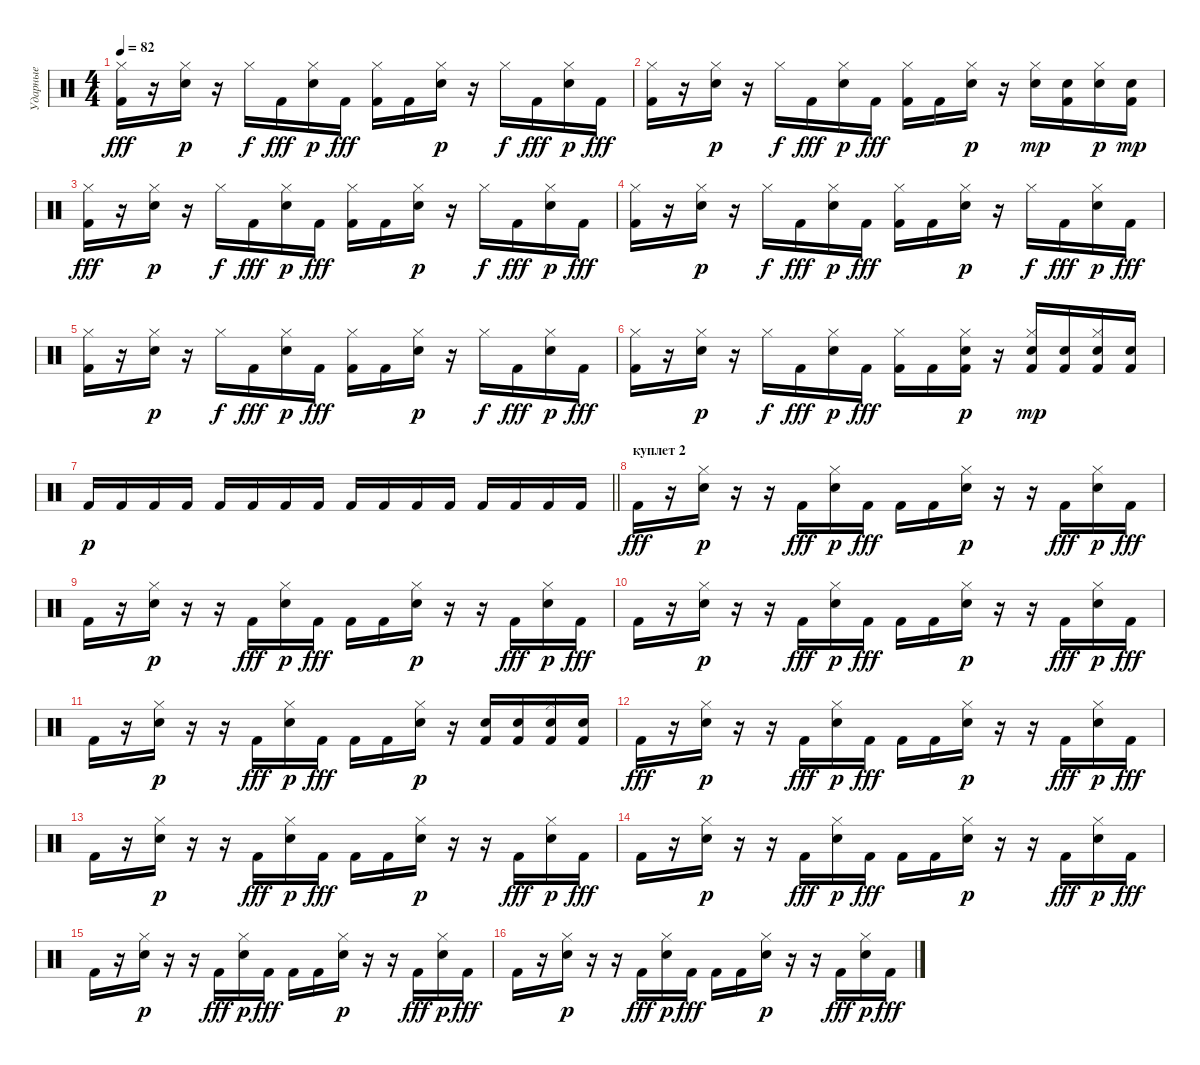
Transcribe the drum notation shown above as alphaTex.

\track ("Ударные" "Ударные") {instrument percussion}
\staff {score}
\articulation defaults
\ts (4 4)
\tempo 82
\clef neutral
\ks c
("Kick (hit) 2" "Hi-Hat (closed)").16{dy fff} r.16 ("Hi-Hat (closed)" "Electric Snare (hit)").16{dy p} r.16 "Hi-Hat (closed)".16{dy f} "Kick (hit) 2".16{dy fff} ("Hi-Hat (closed)" "Electric Snare (hit)").16{dy p} "Kick (hit) 2".16{dy fff} ("Kick (hit) 2" "Hi-Hat (closed)").16 "Kick (hit) 2".16 ("Hi-Hat (closed)" "Electric Snare (hit)").16{dy p} r.16 "Hi-Hat (closed)".16{dy f} "Kick (hit) 2".16{dy fff} ("Hi-Hat (closed)" "Electric Snare (hit)").16{dy p} "Kick (hit) 2".16{dy fff} |
("Kick (hit) 2" "Hi-Hat (closed)").16 r.16 ("Hi-Hat (closed)" "Electric Snare (hit)").16{dy p} r.16 "Hi-Hat (closed)".16{dy f} "Kick (hit) 2".16{dy fff} ("Hi-Hat (closed)" "Electric Snare (hit)").16{dy p} "Kick (hit) 2".16{dy fff} ("Kick (hit) 2" "Hi-Hat (closed)").16 "Kick (hit) 2".16 ("Hi-Hat (closed)" "Electric Snare (hit)").16{dy p} r.16 ("Hi-Hat (closed)" "Electric Snare (hit)").16{dy mp} ("Kick (hit) 2" "Electric Snare (hit)").16 ("Hi-Hat (closed)" "Electric Snare (hit)").16{dy p} ("Kick (hit) 2" "Electric Snare (hit)").16{dy mp} |
("Kick (hit) 2" "Hi-Hat (closed)").16{dy fff} r.16 ("Hi-Hat (closed)" "Electric Snare (hit)").16{dy p} r.16 "Hi-Hat (closed)".16{dy f} "Kick (hit) 2".16{dy fff} ("Hi-Hat (closed)" "Electric Snare (hit)").16{dy p} "Kick (hit) 2".16{dy fff} ("Kick (hit) 2" "Hi-Hat (closed)").16 "Kick (hit) 2".16 ("Hi-Hat (closed)" "Electric Snare (hit)").16{dy p} r.16 "Hi-Hat (closed)".16{dy f} "Kick (hit) 2".16{dy fff} ("Hi-Hat (closed)" "Electric Snare (hit)").16{dy p} "Kick (hit) 2".16{dy fff} |
("Kick (hit) 2" "Hi-Hat (closed)").16 r.16 ("Hi-Hat (closed)" "Electric Snare (hit)").16{dy p} r.16 "Hi-Hat (closed)".16{dy f} "Kick (hit) 2".16{dy fff} ("Hi-Hat (closed)" "Electric Snare (hit)").16{dy p} "Kick (hit) 2".16{dy fff} ("Kick (hit) 2" "Hi-Hat (closed)").16 "Kick (hit) 2".16 ("Hi-Hat (closed)" "Electric Snare (hit)").16{dy p} r.16 "Hi-Hat (closed)".16{dy f} "Kick (hit) 2".16{dy fff} ("Hi-Hat (closed)" "Electric Snare (hit)").16{dy p} "Kick (hit) 2".16{dy fff} |
("Kick (hit) 2" "Hi-Hat (closed)").16 r.16 ("Hi-Hat (closed)" "Electric Snare (hit)").16{dy p} r.16 "Hi-Hat (closed)".16{dy f} "Kick (hit) 2".16{dy fff} ("Hi-Hat (closed)" "Electric Snare (hit)").16{dy p} "Kick (hit) 2".16{dy fff} ("Kick (hit) 2" "Hi-Hat (closed)").16 "Kick (hit) 2".16 ("Hi-Hat (closed)" "Electric Snare (hit)").16{dy p} r.16 "Hi-Hat (closed)".16{dy f} "Kick (hit) 2".16{dy fff} ("Hi-Hat (closed)" "Electric Snare (hit)").16{dy p} "Kick (hit) 2".16{dy fff} |
("Kick (hit) 2" "Hi-Hat (closed)").16 r.16 ("Hi-Hat (closed)" "Electric Snare (hit)").16{dy p} r.16 "Hi-Hat (closed)".16{dy f} "Kick (hit) 2".16{dy fff} ("Hi-Hat (closed)" "Electric Snare (hit)").16{dy p} "Kick (hit) 2".16{dy fff} ("Kick (hit) 2" "Hi-Hat (closed)").16 "Kick (hit) 2".16 ("Kick (hit) 2" "Hi-Hat (closed)" "Electric Snare (hit)").16{dy p} r.16 ("Kick (hit) 2" "Hi-Hat (closed)" "Electric Snare (hit)").16{dy mp} ("Kick (hit) 2" "Electric Snare (hit)").16 ("Kick (hit) 2" "Hi-Hat (closed)" "Electric Snare (hit)").16 ("Kick (hit) 2" "Electric Snare (hit)").16 |
\barLineRight lightlight "Kick (hit) 2".16{dy p} "Kick (hit) 2".16 "Kick (hit) 2".16 "Kick (hit) 2".16 "Kick (hit) 2".16 "Kick (hit) 2".16 "Kick (hit) 2".16 "Kick (hit) 2".16 "Kick (hit) 2".16 "Kick (hit) 2".16 "Kick (hit) 2".16 "Kick (hit) 2".16 "Kick (hit) 2".16 "Kick (hit) 2".16 "Kick (hit) 2".16 "Kick (hit) 2".16
|
\section ("" "куплет 2")
"Kick (hit) 2".16{dy fff} r.16 ("Hi-Hat (closed)" "Electric Snare (hit)").16{dy p} r.16 r.16 "Kick (hit) 2".16{dy fff} ("Hi-Hat (closed)" "Electric Snare (hit)").16{dy p} "Kick (hit) 2".16{dy fff} "Kick (hit) 2".16 "Kick (hit) 2".16 ("Hi-Hat (closed)" "Electric Snare (hit)").16{dy p} r.16 r.16 "Kick (hit) 2".16{dy fff} ("Hi-Hat (closed)" "Electric Snare (hit)").16{dy p} "Kick (hit) 2".16{dy fff} |
"Kick (hit) 2".16 r.16 ("Hi-Hat (closed)" "Electric Snare (hit)").16{dy p} r.16 r.16 "Kick (hit) 2".16{dy fff} ("Hi-Hat (closed)" "Electric Snare (hit)").16{dy p} "Kick (hit) 2".16{dy fff} "Kick (hit) 2".16 "Kick (hit) 2".16 ("Hi-Hat (closed)" "Electric Snare (hit)").16{dy p} r.16 r.16 "Kick (hit) 2".16{dy fff} ("Hi-Hat (closed)" "Electric Snare (hit)").16{dy p} "Kick (hit) 2".16{dy fff} |
"Kick (hit) 2".16 r.16 ("Hi-Hat (closed)" "Electric Snare (hit)").16{dy p} r.16 r.16 "Kick (hit) 2".16{dy fff} ("Hi-Hat (closed)" "Electric Snare (hit)").16{dy p} "Kick (hit) 2".16{dy fff} "Kick (hit) 2".16 "Kick (hit) 2".16 ("Hi-Hat (closed)" "Electric Snare (hit)").16{dy p} r.16 r.16 "Kick (hit) 2".16{dy fff} ("Hi-Hat (closed)" "Electric Snare (hit)").16{dy p} "Kick (hit) 2".16{dy fff} |
"Kick (hit) 2".16 r.16 ("Hi-Hat (closed)" "Electric Snare (hit)").16{dy p} r.16 r.16 "Kick (hit) 2".16{dy fff} ("Hi-Hat (closed)" "Electric Snare (hit)").16{dy p} "Kick (hit) 2".16{dy fff} "Kick (hit) 2".16 "Kick (hit) 2".16 ("Hi-Hat (closed)" "Electric Snare (hit)").16{dy p} r.16 ("Kick (hit) 2" "Electric Snare (hit)").16 ("Kick (hit) 2" "Electric Snare (hit)").16 ("Kick (hit) 2" "Hi-Hat (closed)" "Electric Snare (hit)").16 ("Kick (hit) 2" "Electric Snare (hit)").16 |
"Kick (hit) 2".16{dy fff} r.16 ("Hi-Hat (closed)" "Electric Snare (hit)").16{dy p} r.16 r.16 "Kick (hit) 2".16{dy fff} ("Hi-Hat (closed)" "Electric Snare (hit)").16{dy p} "Kick (hit) 2".16{dy fff} "Kick (hit) 2".16 "Kick (hit) 2".16 ("Hi-Hat (closed)" "Electric Snare (hit)").16{dy p} r.16 r.16 "Kick (hit) 2".16{dy fff} ("Hi-Hat (closed)" "Electric Snare (hit)").16{dy p} "Kick (hit) 2".16{dy fff} |
"Kick (hit) 2".16 r.16 ("Hi-Hat (closed)" "Electric Snare (hit)").16{dy p} r.16 r.16 "Kick (hit) 2".16{dy fff} ("Hi-Hat (closed)" "Electric Snare (hit)").16{dy p} "Kick (hit) 2".16{dy fff} "Kick (hit) 2".16 "Kick (hit) 2".16 ("Hi-Hat (closed)" "Electric Snare (hit)").16{dy p} r.16 r.16 "Kick (hit) 2".16{dy fff} ("Hi-Hat (closed)" "Electric Snare (hit)").16{dy p} "Kick (hit) 2".16{dy fff} |
"Kick (hit) 2".16 r.16 ("Hi-Hat (closed)" "Electric Snare (hit)").16{dy p} r.16 r.16 "Kick (hit) 2".16{dy fff} ("Hi-Hat (closed)" "Electric Snare (hit)").16{dy p} "Kick (hit) 2".16{dy fff} "Kick (hit) 2".16 "Kick (hit) 2".16 ("Hi-Hat (closed)" "Electric Snare (hit)").16{dy p} r.16 r.16 "Kick (hit) 2".16{dy fff} ("Hi-Hat (closed)" "Electric Snare (hit)").16{dy p} "Kick (hit) 2".16{dy fff} |
"Kick (hit) 2".16 r.16 ("Hi-Hat (closed)" "Electric Snare (hit)").16{dy p} r.16 r.16 "Kick (hit) 2".16{dy fff} ("Hi-Hat (closed)" "Electric Snare (hit)").16{dy p} "Kick (hit) 2".16{dy fff} "Kick (hit) 2".16 "Kick (hit) 2".16 ("Hi-Hat (closed)" "Electric Snare (hit)").16{dy p} r.16 r.16 "Kick (hit) 2".16{dy fff} ("Hi-Hat (closed)" "Electric Snare (hit)").16{dy p} "Kick (hit) 2".16{dy fff} |
"Kick (hit) 2".16 r.16 ("Hi-Hat (closed)" "Electric Snare (hit)").16{dy p} r.16 r.16 "Kick (hit) 2".16{dy fff} ("Hi-Hat (closed)" "Electric Snare (hit)").16{dy p} "Kick (hit) 2".16{dy fff} "Kick (hit) 2".16 "Kick (hit) 2".16 ("Hi-Hat (closed)" "Electric Snare (hit)").16{dy p} r.16 r.16 "Kick (hit) 2".16{dy fff} ("Hi-Hat (closed)" "Electric Snare (hit)").16{dy p} "Kick (hit) 2".16{dy fff}
